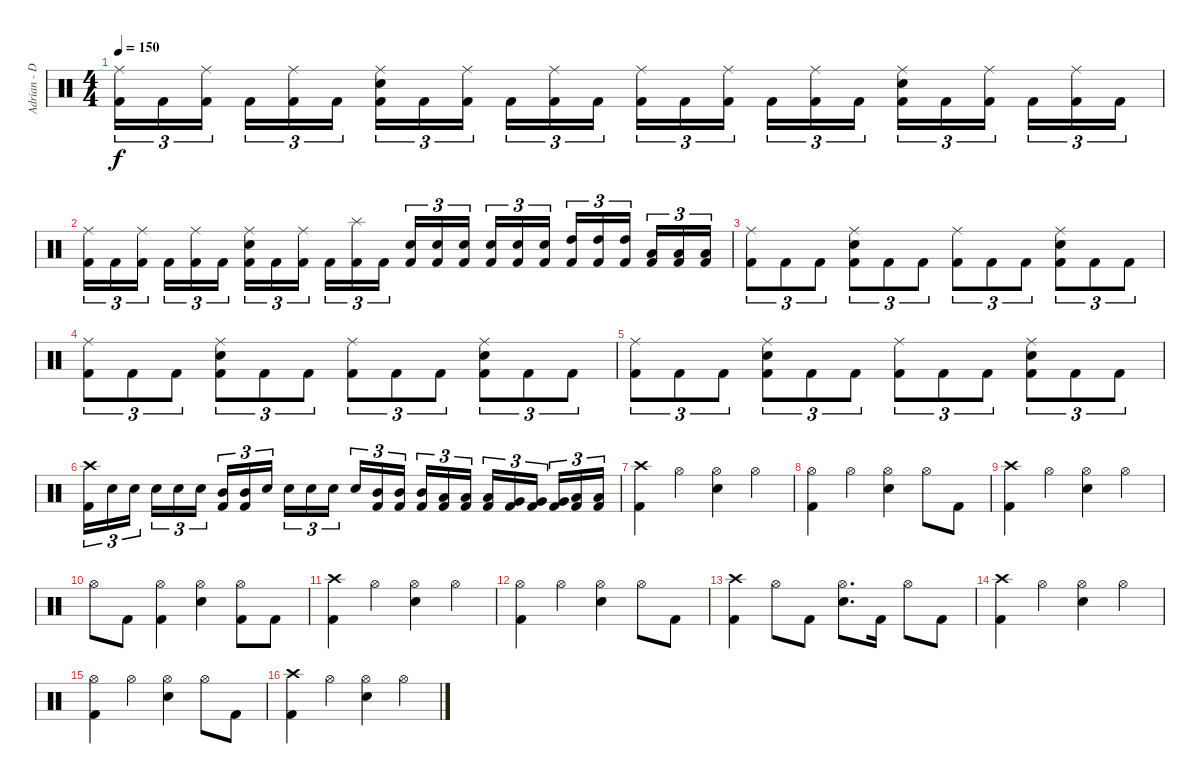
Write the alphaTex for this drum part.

\track ("Adrian - Drums" "Adrian - D") {instrument percussion}
\staff {score}
\articulation defaults
\ts (4 4)
\tempo 150
\clef neutral
\ks c
("Ride (middle)" "Kick (hit) 2").16{tu (3 2) dy f} "Kick (hit) 2".16{tu (3 2)} ("Ride (middle)" "Kick (hit) 2").16{tu (3 2)} "Kick (hit) 2".16{tu (3 2)} ("Ride (middle)" "Kick (hit) 2").16{tu (3 2)} "Kick (hit) 2".16{tu (3 2)} ("Ride (middle)" "Electric Snare (hit)" "Kick (hit) 2").16{tu (3 2)} "Kick (hit) 2".16{tu (3 2)} ("Ride (middle)" "Kick (hit) 2").16{tu (3 2)} "Kick (hit) 2".16{tu (3 2)} ("Ride (middle)" "Kick (hit) 2").16{tu (3 2)} "Kick (hit) 2".16{tu (3 2)} ("Ride (middle)" "Kick (hit) 2").16{tu (3 2)} "Kick (hit) 2".16{tu (3 2)} ("Ride (middle)" "Kick (hit) 2").16{tu (3 2)} "Kick (hit) 2".16{tu (3 2)} ("Ride (middle)" "Kick (hit) 2").16{tu (3 2)} "Kick (hit) 2".16{tu (3 2)} ("Ride (middle)" "Electric Snare (hit)" "Kick (hit) 2").16{tu (3 2)} "Kick (hit) 2".16{tu (3 2)} ("Ride (middle)" "Kick (hit) 2").16{tu (3 2)} "Kick (hit) 2".16{tu (3 2)} ("Ride (middle)" "Kick (hit) 2").16{tu (3 2)} "Kick (hit) 2".16{tu (3 2)} |
("Ride (middle)" "Kick (hit) 2").16{tu (3 2)} "Kick (hit) 2".16{tu (3 2)} ("Ride (middle)" "Kick (hit) 2").16{tu (3 2)} "Kick (hit) 2".16{tu (3 2)} ("Ride (middle)" "Kick (hit) 2").16{tu (3 2)} "Kick (hit) 2".16{tu (3 2)} ("Ride (middle)" "Electric Snare (hit)" "Kick (hit) 2").16{tu (3 2)} "Kick (hit) 2".16{tu (3 2)} ("Ride (middle)" "Kick (hit) 2").16{tu (3 2)} "Kick (hit) 2".16{tu (3 2)} ("Splash (hit)" "Kick (hit) 2").16{tu (3 2)} "Kick (hit) 2".16{tu (3 2)} ("Electric Snare (hit)" "Kick (hit) 2").16{tu (3 2)} ("Electric Snare (hit)" "Kick (hit) 2").16{tu (3 2)} ("Electric Snare (hit)" "Kick (hit) 2").16{tu (3 2)} ("Electric Snare (hit)" "Kick (hit) 2").16{tu (3 2)} ("Electric Snare (hit)" "Kick (hit) 2").16{tu (3 2)} ("Electric Snare (hit)" "Kick (hit) 2").16{tu (3 2)} ("High Tom (hit)" "Kick (hit) 2").16{tu (3 2)} ("High Tom (hit)" "Kick (hit) 2").16{tu (3 2)} ("High Tom (hit)" "Kick (hit) 2").16{tu (3 2)} ("Low Tom (hit)" "Kick (hit) 2").16{tu (3 2)} ("Low Tom (hit)" "Kick (hit) 2").16{tu (3 2)} ("Low Tom (hit)" "Kick (hit) 2").16{tu (3 2)} |
("Ride (middle)" "Kick (hit) 2").8{tu (3 2)} "Kick (hit) 2".8{tu (3 2)} "Kick (hit) 2".8{tu (3 2)} ("Ride (middle)" "Electric Snare (hit)" "Kick (hit) 2").8{tu (3 2)} "Kick (hit) 2".8{tu (3 2)} "Kick (hit) 2".8{tu (3 2)} ("Ride (middle)" "Kick (hit) 2").8{tu (3 2)} "Kick (hit) 2".8{tu (3 2)} "Kick (hit) 2".8{tu (3 2)} ("Ride (middle)" "Electric Snare (hit)" "Kick (hit) 2").8{tu (3 2)} "Kick (hit) 2".8{tu (3 2)} "Kick (hit) 2".8{tu (3 2)} |
("Ride (middle)" "Kick (hit) 2").8{tu (3 2)} "Kick (hit) 2".8{tu (3 2)} "Kick (hit) 2".8{tu (3 2)} ("Ride (middle)" "Electric Snare (hit)" "Kick (hit) 2").8{tu (3 2)} "Kick (hit) 2".8{tu (3 2)} "Kick (hit) 2".8{tu (3 2)} ("Ride (middle)" "Kick (hit) 2").8{tu (3 2)} "Kick (hit) 2".8{tu (3 2)} "Kick (hit) 2".8{tu (3 2)} ("Ride (middle)" "Electric Snare (hit)" "Kick (hit) 2").8{tu (3 2)} "Kick (hit) 2".8{tu (3 2)} "Kick (hit) 2".8{tu (3 2)} |
("Ride (middle)" "Kick (hit) 2").8{tu (3 2)} "Kick (hit) 2".8{tu (3 2)} "Kick (hit) 2".8{tu (3 2)} ("Ride (middle)" "Electric Snare (hit)" "Kick (hit) 2").8{tu (3 2)} "Kick (hit) 2".8{tu (3 2)} "Kick (hit) 2".8{tu (3 2)} ("Ride (middle)" "Kick (hit) 2").8{tu (3 2)} "Kick (hit) 2".8{tu (3 2)} "Kick (hit) 2".8{tu (3 2)} ("Ride (middle)" "Electric Snare (hit)" "Kick (hit) 2").8{tu (3 2)} "Kick (hit) 2".8{tu (3 2)} "Kick (hit) 2".8{tu (3 2)} |
("Crash high (hit)" "Kick (hit) 2").16{tu (3 2)} "Electric Snare (hit)".16{tu (3 2)} "Electric Snare (hit)".16{tu (3 2)} "Electric Snare (hit)".16{tu (3 2)} "Electric Snare (hit)".16{tu (3 2)} "Electric Snare (hit)".16{tu (3 2)} ("Mid Tom (hit)" "Kick (hit) 2").16{tu (3 2)} ("Mid Tom (hit)" "Kick (hit) 2").16{tu (3 2)} "Electric Snare (hit)".16{tu (3 2)} "Electric Snare (hit)".16{tu (3 2)} "Electric Snare (hit)".16{tu (3 2)} "Electric Snare (hit)".16{tu (3 2)} "Electric Snare (hit)".16{tu (3 2)} ("Mid Tom (hit)" "Kick (hit) 2").16{tu (3 2)} ("Mid Tom (hit)" "Kick (hit) 2").16{tu (3 2)} ("Mid Tom (hit)" "Kick (hit) 2").16{tu (3 2)} ("Low Tom (hit)" "Kick (hit) 2").16{tu (3 2)} ("Low Tom (hit)" "Kick (hit) 2").16{tu (3 2)} ("Low Tom (hit)" "Kick (hit) 2").16{tu (3 2)} ("Very Low Tom (hit)" "Kick (hit) 2").16{tu (3 2)} ("Very Low Tom (hit)" "Kick (hit) 2").16{tu (3 2)} ("Very Low Tom (hit)" "Kick (hit) 2").16{tu (3 2)} ("Low Floor Tom (hit)" "Kick (hit) 2").16{tu (3 2)} ("Low Floor Tom (hit)" "Kick (hit) 2").16{tu (3 2)} |
("Crash high (hit)" "Kick (hit) 2").4 "Hi-Hat (open)".4 ("Hi-Hat (open)" "Electric Snare (hit)").4 "Hi-Hat (open)".4 |
("Hi-Hat (open)" "Kick (hit) 2").4 "Hi-Hat (open)".4 ("Hi-Hat (open)" "Electric Snare (hit)").4 "Hi-Hat (open)".8 "Kick (hit) 2".8 |
("Crash high (hit)" "Kick (hit) 2").4 "Hi-Hat (open)".4 ("Hi-Hat (open)" "Electric Snare (hit)").4 "Hi-Hat (open)".4 |
"Hi-Hat (open)".8 "Kick (hit) 2".8 ("Hi-Hat (open)" "Kick (hit) 2").4 ("Hi-Hat (open)" "Electric Snare (hit)").4 ("Hi-Hat (open)" "Kick (hit) 2").8 "Kick (hit) 2".8 |
("Crash high (hit)" "Kick (hit) 2").4 "Hi-Hat (open)".4 ("Hi-Hat (open)" "Electric Snare (hit)").4 "Hi-Hat (open)".4 |
("Hi-Hat (open)" "Kick (hit) 2").4 "Hi-Hat (open)".4 ("Hi-Hat (open)" "Electric Snare (hit)").4 "Hi-Hat (open)".8 "Kick (hit) 2".8 |
("Crash high (hit)" "Kick (hit) 2").4 "Hi-Hat (open)".8 "Kick (hit) 2".8 ("Hi-Hat (open)" "Electric Snare (hit)").8{d} "Kick (hit) 2".16 "Hi-Hat (open)".8 "Kick (hit) 2".8 |
("Crash high (hit)" "Kick (hit) 2").4 "Hi-Hat (open)".4 ("Hi-Hat (open)" "Electric Snare (hit)").4 "Hi-Hat (open)".4 |
("Hi-Hat (open)" "Kick (hit) 2").4 "Hi-Hat (open)".4 ("Hi-Hat (open)" "Electric Snare (hit)").4 "Hi-Hat (open)".8 "Kick (hit) 2".8 |
("Crash high (hit)" "Kick (hit) 2").4 "Hi-Hat (open)".4 ("Hi-Hat (open)" "Electric Snare (hit)").4 "Hi-Hat (open)".4
